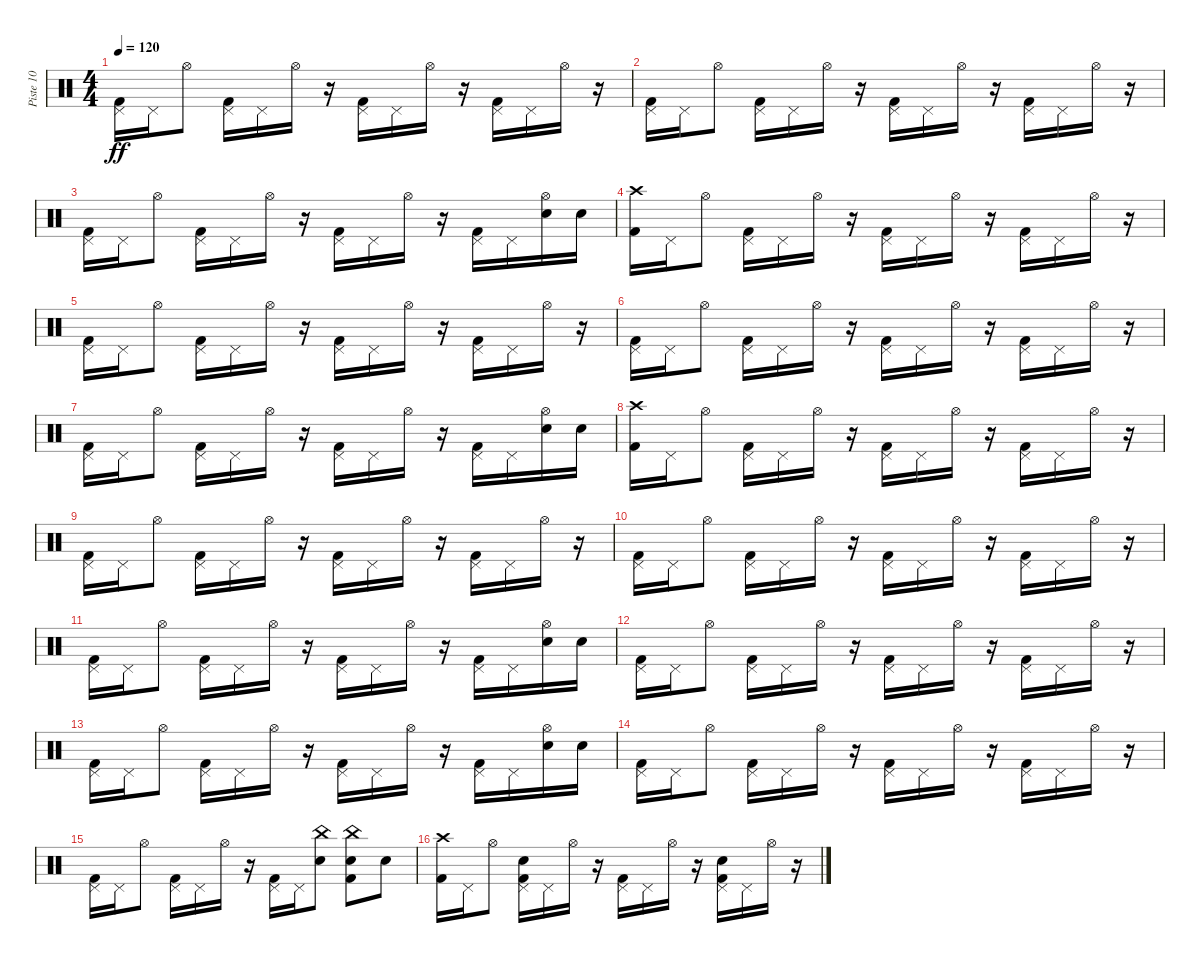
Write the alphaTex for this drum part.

\track ("Piste 10" "Piste 10") {instrument percussion}
\staff {score}
\articulation defaults
\ts (4 4)
\tempo 120
\clef neutral
\ks c
("Kick (hit) 2" "Pedal Hi-Hat (hit)").16{dy ff} "Pedal Hi-Hat (hit)".16 "Hi-Hat (open)".8 ("Kick (hit) 2" "Pedal Hi-Hat (hit)").16 "Pedal Hi-Hat (hit)".16 "Hi-Hat (open)".16 r.16 ("Kick (hit) 2" "Pedal Hi-Hat (hit)").16 "Pedal Hi-Hat (hit)".16 "Hi-Hat (open)".16 r.16 ("Kick (hit) 2" "Pedal Hi-Hat (hit)").16 "Pedal Hi-Hat (hit)".16 "Hi-Hat (open)".16 r.16 |
("Kick (hit) 2" "Pedal Hi-Hat (hit)").16 "Pedal Hi-Hat (hit)".16 "Hi-Hat (open)".8 ("Kick (hit) 2" "Pedal Hi-Hat (hit)").16 "Pedal Hi-Hat (hit)".16 "Hi-Hat (open)".16 r.16 ("Kick (hit) 2" "Pedal Hi-Hat (hit)").16 "Pedal Hi-Hat (hit)".16 "Hi-Hat (open)".16 r.16 ("Kick (hit) 2" "Pedal Hi-Hat (hit)").16 "Pedal Hi-Hat (hit)".16 "Hi-Hat (open)".16 r.16 |
("Kick (hit) 2" "Pedal Hi-Hat (hit)").16 "Pedal Hi-Hat (hit)".16 "Hi-Hat (open)".8 ("Kick (hit) 2" "Pedal Hi-Hat (hit)").16 "Pedal Hi-Hat (hit)".16 "Hi-Hat (open)".16 r.16 ("Kick (hit) 2" "Pedal Hi-Hat (hit)").16 "Pedal Hi-Hat (hit)".16 "Hi-Hat (open)".16 r.16 ("Kick (hit) 2" "Pedal Hi-Hat (hit)").16 "Pedal Hi-Hat (hit)".16 ("Snare (hit) 2" "Hi-Hat (open)").16 "Snare (hit) 2".16 |
("Crash high (hit)" "Kick (hit) 2").16 "Pedal Hi-Hat (hit)".16 "Hi-Hat (open)".8 ("Kick (hit) 2" "Pedal Hi-Hat (hit)").16 "Pedal Hi-Hat (hit)".16 "Hi-Hat (open)".16 r.16 ("Kick (hit) 2" "Pedal Hi-Hat (hit)").16 "Pedal Hi-Hat (hit)".16 "Hi-Hat (open)".16 r.16 ("Kick (hit) 2" "Pedal Hi-Hat (hit)").16 "Pedal Hi-Hat (hit)".16 "Hi-Hat (open)".16 r.16 |
("Kick (hit) 2" "Pedal Hi-Hat (hit)").16 "Pedal Hi-Hat (hit)".16 "Hi-Hat (open)".8 ("Kick (hit) 2" "Pedal Hi-Hat (hit)").16 "Pedal Hi-Hat (hit)".16 "Hi-Hat (open)".16 r.16 ("Kick (hit) 2" "Pedal Hi-Hat (hit)").16 "Pedal Hi-Hat (hit)".16 "Hi-Hat (open)".16 r.16 ("Kick (hit) 2" "Pedal Hi-Hat (hit)").16 "Pedal Hi-Hat (hit)".16 "Hi-Hat (open)".16 r.16 |
("Kick (hit) 2" "Pedal Hi-Hat (hit)").16 "Pedal Hi-Hat (hit)".16 "Hi-Hat (open)".8 ("Kick (hit) 2" "Pedal Hi-Hat (hit)").16 "Pedal Hi-Hat (hit)".16 "Hi-Hat (open)".16 r.16 ("Kick (hit) 2" "Pedal Hi-Hat (hit)").16 "Pedal Hi-Hat (hit)".16 "Hi-Hat (open)".16 r.16 ("Kick (hit) 2" "Pedal Hi-Hat (hit)").16 "Pedal Hi-Hat (hit)".16 "Hi-Hat (open)".16 r.16 |
("Kick (hit) 2" "Pedal Hi-Hat (hit)").16 "Pedal Hi-Hat (hit)".16 "Hi-Hat (open)".8 ("Kick (hit) 2" "Pedal Hi-Hat (hit)").16 "Pedal Hi-Hat (hit)".16 "Hi-Hat (open)".16 r.16 ("Kick (hit) 2" "Pedal Hi-Hat (hit)").16 "Pedal Hi-Hat (hit)".16 "Hi-Hat (open)".16 r.16 ("Kick (hit) 2" "Pedal Hi-Hat (hit)").16 "Pedal Hi-Hat (hit)".16 ("Snare (hit) 2" "Hi-Hat (open)").16 "Snare (hit) 2".16 |
("Crash high (hit)" "Kick (hit) 2").16 "Pedal Hi-Hat (hit)".16 "Hi-Hat (open)".8 ("Kick (hit) 2" "Pedal Hi-Hat (hit)").16 "Pedal Hi-Hat (hit)".16 "Hi-Hat (open)".16 r.16 ("Kick (hit) 2" "Pedal Hi-Hat (hit)").16 "Pedal Hi-Hat (hit)".16 "Hi-Hat (open)".16 r.16 ("Kick (hit) 2" "Pedal Hi-Hat (hit)").16 "Pedal Hi-Hat (hit)".16 "Hi-Hat (open)".16 r.16 |
("Kick (hit) 2" "Pedal Hi-Hat (hit)").16 "Pedal Hi-Hat (hit)".16 "Hi-Hat (open)".8 ("Kick (hit) 2" "Pedal Hi-Hat (hit)").16 "Pedal Hi-Hat (hit)".16 "Hi-Hat (open)".16 r.16 ("Kick (hit) 2" "Pedal Hi-Hat (hit)").16 "Pedal Hi-Hat (hit)".16 "Hi-Hat (open)".16 r.16 ("Kick (hit) 2" "Pedal Hi-Hat (hit)").16 "Pedal Hi-Hat (hit)".16 "Hi-Hat (open)".16 r.16 |
("Kick (hit) 2" "Pedal Hi-Hat (hit)").16 "Pedal Hi-Hat (hit)".16 "Hi-Hat (open)".8 ("Kick (hit) 2" "Pedal Hi-Hat (hit)").16 "Pedal Hi-Hat (hit)".16 "Hi-Hat (open)".16 r.16 ("Kick (hit) 2" "Pedal Hi-Hat (hit)").16 "Pedal Hi-Hat (hit)".16 "Hi-Hat (open)".16 r.16 ("Kick (hit) 2" "Pedal Hi-Hat (hit)").16 "Pedal Hi-Hat (hit)".16 "Hi-Hat (open)".16 r.16 |
("Kick (hit) 2" "Pedal Hi-Hat (hit)").16 "Pedal Hi-Hat (hit)".16 "Hi-Hat (open)".8 ("Kick (hit) 2" "Pedal Hi-Hat (hit)").16 "Pedal Hi-Hat (hit)".16 "Hi-Hat (open)".16 r.16 ("Kick (hit) 2" "Pedal Hi-Hat (hit)").16 "Pedal Hi-Hat (hit)".16 "Hi-Hat (open)".16 r.16 ("Kick (hit) 2" "Pedal Hi-Hat (hit)").16 "Pedal Hi-Hat (hit)".16 ("Snare (hit) 2" "Hi-Hat (open)").16 "Snare (hit) 2".16 |
("Kick (hit) 2" "Pedal Hi-Hat (hit)").16 "Pedal Hi-Hat (hit)".16 "Hi-Hat (open)".8 ("Kick (hit) 2" "Pedal Hi-Hat (hit)").16 "Pedal Hi-Hat (hit)".16 "Hi-Hat (open)".16 r.16 ("Kick (hit) 2" "Pedal Hi-Hat (hit)").16 "Pedal Hi-Hat (hit)".16 "Hi-Hat (open)".16 r.16 ("Kick (hit) 2" "Pedal Hi-Hat (hit)").16 "Pedal Hi-Hat (hit)".16 "Hi-Hat (open)".16 r.16 |
("Kick (hit) 2" "Pedal Hi-Hat (hit)").16 "Pedal Hi-Hat (hit)".16 "Hi-Hat (open)".8 ("Kick (hit) 2" "Pedal Hi-Hat (hit)").16 "Pedal Hi-Hat (hit)".16 "Hi-Hat (open)".16 r.16 ("Kick (hit) 2" "Pedal Hi-Hat (hit)").16 "Pedal Hi-Hat (hit)".16 "Hi-Hat (open)".16 r.16 ("Kick (hit) 2" "Pedal Hi-Hat (hit)").16 "Pedal Hi-Hat (hit)".16 ("Snare (hit) 2" "Hi-Hat (open)").16 "Snare (hit) 2".16 |
("Kick (hit) 2" "Pedal Hi-Hat (hit)").16 "Pedal Hi-Hat (hit)".16 "Hi-Hat (open)".8 ("Kick (hit) 2" "Pedal Hi-Hat (hit)").16 "Pedal Hi-Hat (hit)".16 "Hi-Hat (open)".16 r.16 ("Kick (hit) 2" "Pedal Hi-Hat (hit)").16 "Pedal Hi-Hat (hit)".16 "Hi-Hat (open)".16 r.16 ("Kick (hit) 2" "Pedal Hi-Hat (hit)").16 "Pedal Hi-Hat (hit)".16 "Hi-Hat (open)".16 r.16 |
("Kick (hit) 2" "Pedal Hi-Hat (hit)").16 "Pedal Hi-Hat (hit)".16 "Hi-Hat (open)".8 ("Kick (hit) 2" "Pedal Hi-Hat (hit)").16 "Pedal Hi-Hat (hit)".16 "Hi-Hat (open)".16 r.16 ("Kick (hit) 2" "Pedal Hi-Hat (hit)").16 "Pedal Hi-Hat (hit)".16 ("China (hit)" "Snare (hit) 2").8 ("Snare (hit) 2" "China (hit)" "Kick (hit) 2").8 "Snare (hit) 2".8 |
("Crash high (hit)" "Kick (hit) 2").16 "Pedal Hi-Hat (hit)".16 "Hi-Hat (open)".8 ("Kick (hit) 2" "Snare (hit) 2" "Pedal Hi-Hat (hit)").16 "Pedal Hi-Hat (hit)".16 "Hi-Hat (open)".16 r.16 ("Kick (hit) 2" "Pedal Hi-Hat (hit)").16 "Pedal Hi-Hat (hit)".16 "Hi-Hat (open)".16 r.16 ("Kick (hit) 2" "Snare (hit) 2" "Pedal Hi-Hat (hit)").16 "Pedal Hi-Hat (hit)".16 "Hi-Hat (open)".16 r.16
